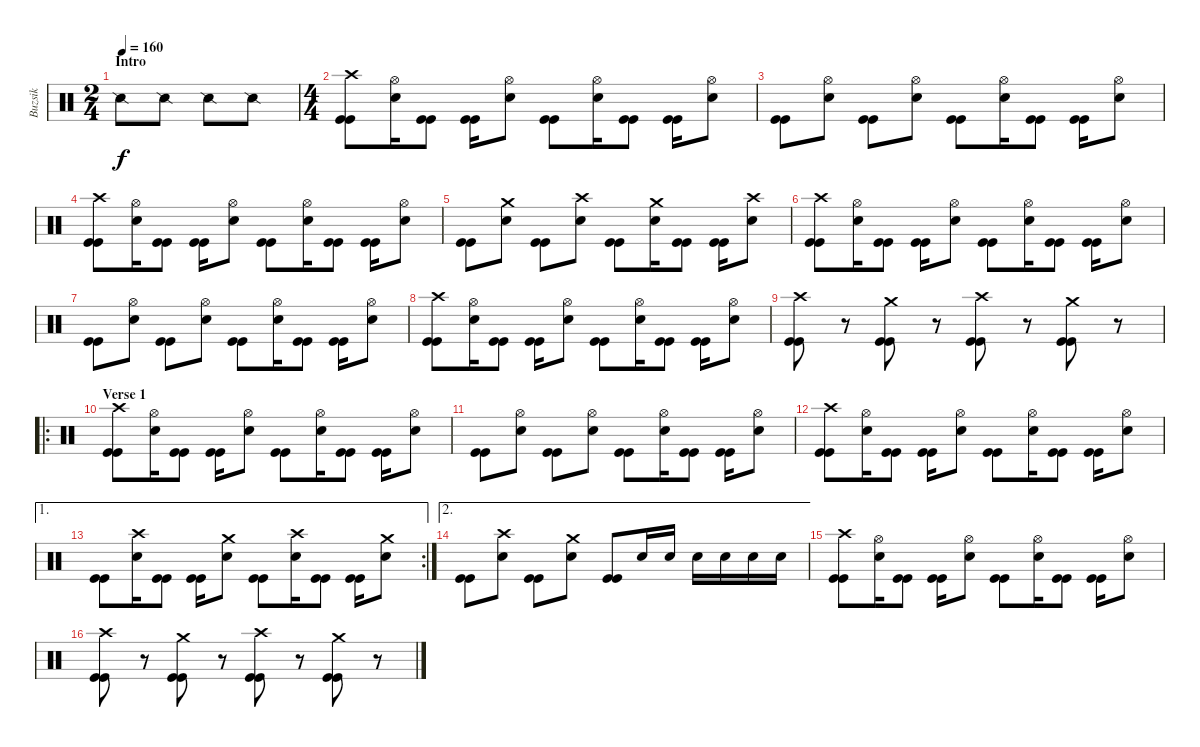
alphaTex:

\track ("Buzsik" "Buzsik") {instrument percussion}
\staff {score}
\articulation defaults
\ts (2 4)
\section ("" "Intro")
\tempo 160
\clef neutral
\ks c "Snare (side stick) 2".8{dy f} "Snare (side stick) 2".8 "Snare (side stick) 2".8 "Snare (side stick) 2".8
|
\ts (4 4)
("Crash high (hit)" "Kick (hit)" "Kick (hit)").8 ("Hi-Hat (open)" "Electric Snare (hit)").16 ("Kick (hit)" "Kick (hit)").8 ("Kick (hit)" "Kick (hit)").16 ("Hi-Hat (open)" "Electric Snare (hit)").8 ("Kick (hit)" "Kick (hit)").8 ("Hi-Hat (open)" "Electric Snare (hit)").16 ("Kick (hit)" "Kick (hit)").8 ("Kick (hit)" "Kick (hit)").16 ("Hi-Hat (open)" "Electric Snare (hit)").8 |
("Kick (hit)" "Kick (hit)").8 ("Hi-Hat (open)" "Electric Snare (hit)").8 ("Kick (hit)" "Kick (hit)").8 ("Hi-Hat (open)" "Electric Snare (hit)").8 ("Kick (hit)" "Kick (hit)").8 ("Hi-Hat (open)" "Electric Snare (hit)").16 ("Kick (hit)" "Kick (hit)").8 ("Kick (hit)" "Kick (hit)").16 ("Hi-Hat (open)" "Electric Snare (hit)").8 |
("Crash high (hit)" "Kick (hit)" "Kick (hit)").8 ("Hi-Hat (open)" "Electric Snare (hit)").16 ("Kick (hit)" "Kick (hit)").8 ("Kick (hit)" "Kick (hit)").16 ("Hi-Hat (open)" "Electric Snare (hit)").8 ("Kick (hit)" "Kick (hit)").8 ("Hi-Hat (open)" "Electric Snare (hit)").16 ("Kick (hit)" "Kick (hit)").8 ("Kick (hit)" "Kick (hit)").16 ("Hi-Hat (open)" "Electric Snare (hit)").8 |
("Kick (hit)" "Kick (hit)").8 ("Crash medium (hit)" "Electric Snare (hit)").8 ("Kick (hit)" "Kick (hit)").8 ("Crash high (hit)" "Electric Snare (hit)").8 ("Kick (hit)" "Kick (hit)").8 ("Crash medium (hit)" "Electric Snare (hit)").16 ("Kick (hit)" "Kick (hit)").8 ("Kick (hit)" "Kick (hit)").16 ("Crash high (hit)" "Electric Snare (hit)").8 |
("Crash high (hit)" "Kick (hit)" "Kick (hit)").8 ("Hi-Hat (open)" "Electric Snare (hit)").16 ("Kick (hit)" "Kick (hit)").8 ("Kick (hit)" "Kick (hit)").16 ("Hi-Hat (open)" "Electric Snare (hit)").8 ("Kick (hit)" "Kick (hit)").8 ("Hi-Hat (open)" "Electric Snare (hit)").16 ("Kick (hit)" "Kick (hit)").8 ("Kick (hit)" "Kick (hit)").16 ("Hi-Hat (open)" "Electric Snare (hit)").8 |
("Kick (hit)" "Kick (hit)").8 ("Hi-Hat (open)" "Electric Snare (hit)").8 ("Kick (hit)" "Kick (hit)").8 ("Hi-Hat (open)" "Electric Snare (hit)").8 ("Kick (hit)" "Kick (hit)").8 ("Hi-Hat (open)" "Electric Snare (hit)").16 ("Kick (hit)" "Kick (hit)").8 ("Kick (hit)" "Kick (hit)").16 ("Hi-Hat (open)" "Electric Snare (hit)").8 |
("Crash high (hit)" "Kick (hit)" "Kick (hit)").8 ("Hi-Hat (open)" "Electric Snare (hit)").16 ("Kick (hit)" "Kick (hit)").8 ("Kick (hit)" "Kick (hit)").16 ("Hi-Hat (open)" "Electric Snare (hit)").8 ("Kick (hit)" "Kick (hit)").8 ("Hi-Hat (open)" "Electric Snare (hit)").16 ("Kick (hit)" "Kick (hit)").8 ("Kick (hit)" "Kick (hit)").16 ("Hi-Hat (open)" "Electric Snare (hit)").8 |
("Crash high (hit)" "Kick (hit)" "Kick (hit)").8 r.8 ("Crash medium (hit)" "Kick (hit)" "Kick (hit)").8 r.8 ("Crash high (hit)" "Kick (hit)" "Kick (hit)").8 r.8 ("Crash medium (hit)" "Kick (hit)" "Kick (hit)").8 r.8 |
\ro
\section ("" "Verse 1")
("Crash high (hit)" "Kick (hit)" "Kick (hit)").8 ("Hi-Hat (open)" "Electric Snare (hit)").16 ("Kick (hit)" "Kick (hit)").8 ("Kick (hit)" "Kick (hit)").16 ("Hi-Hat (open)" "Electric Snare (hit)").8 ("Kick (hit)" "Kick (hit)").8 ("Hi-Hat (open)" "Electric Snare (hit)").16 ("Kick (hit)" "Kick (hit)").8 ("Kick (hit)" "Kick (hit)").16 ("Hi-Hat (open)" "Electric Snare (hit)").8 |
("Kick (hit)" "Kick (hit)").8 ("Hi-Hat (open)" "Electric Snare (hit)").8 ("Kick (hit)" "Kick (hit)").8 ("Hi-Hat (open)" "Electric Snare (hit)").8 ("Kick (hit)" "Kick (hit)").8 ("Hi-Hat (open)" "Electric Snare (hit)").16 ("Kick (hit)" "Kick (hit)").8 ("Kick (hit)" "Kick (hit)").16 ("Hi-Hat (open)" "Electric Snare (hit)").8 |
("Crash high (hit)" "Kick (hit)" "Kick (hit)").8 ("Hi-Hat (open)" "Electric Snare (hit)").16 ("Kick (hit)" "Kick (hit)").8 ("Kick (hit)" "Kick (hit)").16 ("Hi-Hat (open)" "Electric Snare (hit)").8 ("Kick (hit)" "Kick (hit)").8 ("Hi-Hat (open)" "Electric Snare (hit)").16 ("Kick (hit)" "Kick (hit)").8 ("Kick (hit)" "Kick (hit)").16 ("Hi-Hat (open)" "Electric Snare (hit)").8 |
\ae 1
\rc 2
("Kick (hit)" "Kick (hit)").8 ("Crash high (hit)" "Electric Snare (hit)").16 ("Kick (hit)" "Kick (hit)").8 ("Kick (hit)" "Kick (hit)").16 ("Crash medium (hit)" "Electric Snare (hit)").8 ("Kick (hit)" "Kick (hit)").8 ("Crash high (hit)" "Electric Snare (hit)").16 ("Kick (hit)" "Kick (hit)").8 ("Kick (hit)" "Kick (hit)").16 ("Crash medium (hit)" "Electric Snare (hit)").8 |
\ae 2
("Kick (hit)" "Kick (hit)").8 ("Crash high (hit)" "Electric Snare (hit)").8 ("Kick (hit)" "Kick (hit)").8 ("Crash medium (hit)" "Electric Snare (hit)").8 ("Kick (hit)" "Kick (hit)").8 "Electric Snare (hit)".16 "Electric Snare (hit)".16 "Electric Snare (hit)".16 "Electric Snare (hit)".16 "Electric Snare (hit)".16 "Electric Snare (hit)".16 |
("Crash high (hit)" "Kick (hit)" "Kick (hit)").8 ("Hi-Hat (open)" "Electric Snare (hit)").16 ("Kick (hit)" "Kick (hit)").8 ("Kick (hit)" "Kick (hit)").16 ("Hi-Hat (open)" "Electric Snare (hit)").8 ("Kick (hit)" "Kick (hit)").8 ("Hi-Hat (open)" "Electric Snare (hit)").16 ("Kick (hit)" "Kick (hit)").8 ("Kick (hit)" "Kick (hit)").16 ("Hi-Hat (open)" "Electric Snare (hit)").8 |
("Crash high (hit)" "Kick (hit)" "Kick (hit)").8 r.8 ("Crash medium (hit)" "Kick (hit)" "Kick (hit)").8 r.8 ("Crash high (hit)" "Kick (hit)" "Kick (hit)").8 r.8 ("Crash medium (hit)" "Kick (hit)" "Kick (hit)").8 r.8
